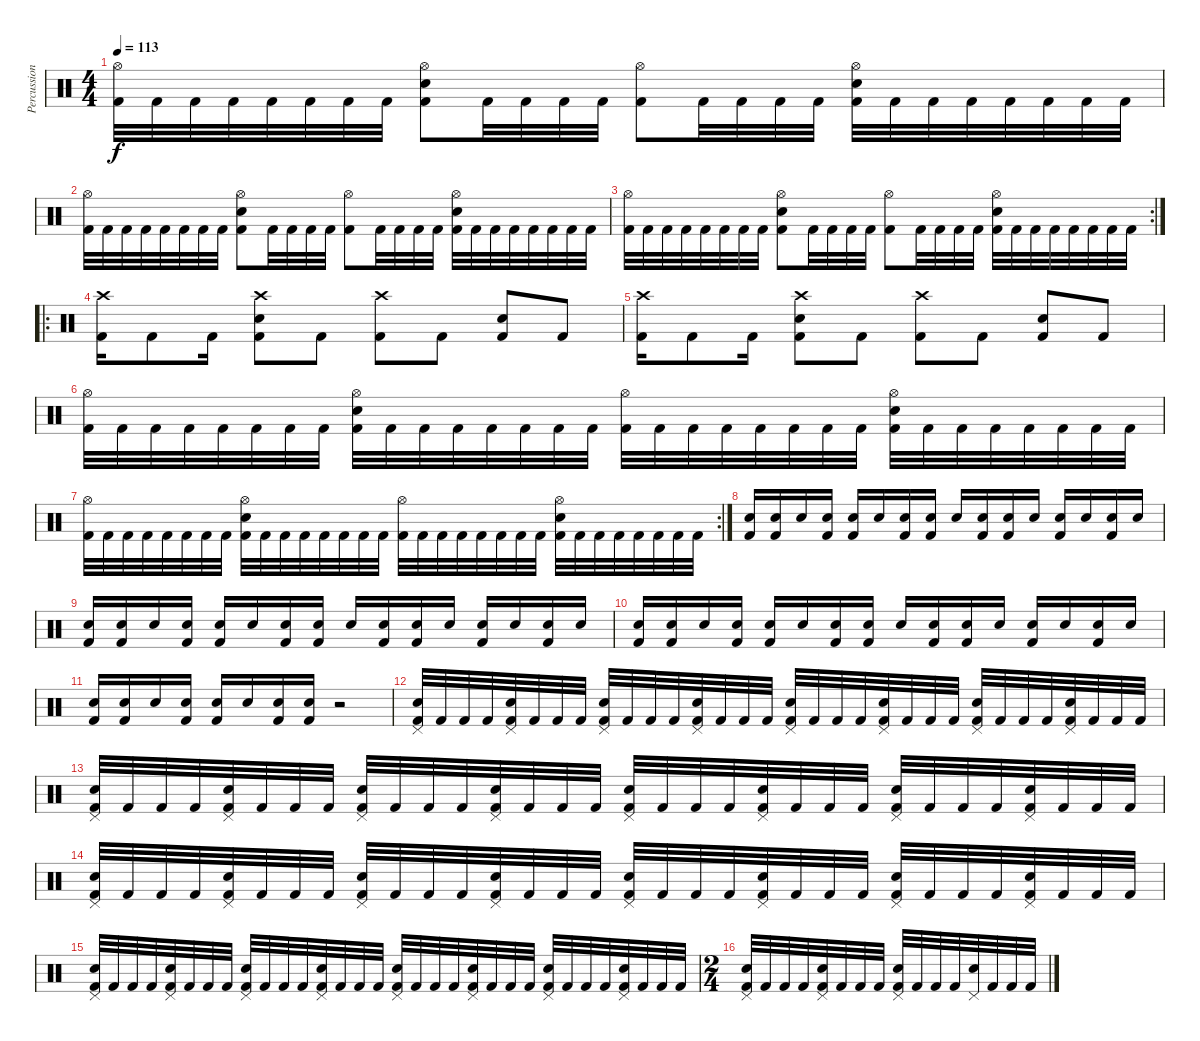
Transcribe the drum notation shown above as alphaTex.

\track ("Percussion" "Percussion") {instrument percussion}
\staff {score}
\articulation defaults
\ts (4 4)
\tempo 113
\clef neutral
\ks c
("Hi-Hat (open)" "Kick (hit) 2").32{dy f} "Kick (hit) 2".32 "Kick (hit) 2".32 "Kick (hit) 2".32 "Kick (hit) 2".32 "Kick (hit) 2".32 "Kick (hit) 2".32 "Kick (hit) 2".32 ("Hi-Hat (open)" "Electric Snare (hit)" "Kick (hit) 2").8 "Kick (hit) 2".32 "Kick (hit) 2".32 "Kick (hit) 2".32 "Kick (hit) 2".32 ("Hi-Hat (open)" "Kick (hit) 2").8 "Kick (hit) 2".32 "Kick (hit) 2".32 "Kick (hit) 2".32 "Kick (hit) 2".32 ("Hi-Hat (open)" "Electric Snare (hit)" "Kick (hit) 2").32 "Kick (hit) 2".32 "Kick (hit) 2".32 "Kick (hit) 2".32 "Kick (hit) 2".32 "Kick (hit) 2".32 "Kick (hit) 2".32 "Kick (hit) 2".32 |
("Hi-Hat (open)" "Kick (hit) 2").32 "Kick (hit) 2".32 "Kick (hit) 2".32 "Kick (hit) 2".32 "Kick (hit) 2".32 "Kick (hit) 2".32 "Kick (hit) 2".32 "Kick (hit) 2".32 ("Hi-Hat (open)" "Electric Snare (hit)" "Kick (hit) 2").8 "Kick (hit) 2".32 "Kick (hit) 2".32 "Kick (hit) 2".32 "Kick (hit) 2".32 ("Hi-Hat (open)" "Kick (hit) 2").8 "Kick (hit) 2".32 "Kick (hit) 2".32 "Kick (hit) 2".32 "Kick (hit) 2".32 ("Hi-Hat (open)" "Electric Snare (hit)" "Kick (hit) 2").32 "Kick (hit) 2".32 "Kick (hit) 2".32 "Kick (hit) 2".32 "Kick (hit) 2".32 "Kick (hit) 2".32 "Kick (hit) 2".32 "Kick (hit) 2".32 |
\rc 2
("Hi-Hat (open)" "Kick (hit) 2").32 "Kick (hit) 2".32 "Kick (hit) 2".32 "Kick (hit) 2".32 "Kick (hit) 2".32 "Kick (hit) 2".32 "Kick (hit) 2".32 "Kick (hit) 2".32 ("Hi-Hat (open)" "Electric Snare (hit)" "Kick (hit) 2").8 "Kick (hit) 2".32 "Kick (hit) 2".32 "Kick (hit) 2".32 "Kick (hit) 2".32 ("Hi-Hat (open)" "Kick (hit) 2").8 "Kick (hit) 2".32 "Kick (hit) 2".32 "Kick (hit) 2".32 "Kick (hit) 2".32 ("Hi-Hat (open)" "Electric Snare (hit)" "Kick (hit) 2").32 "Kick (hit) 2".32 "Kick (hit) 2".32 "Kick (hit) 2".32 "Kick (hit) 2".32 "Kick (hit) 2".32 "Kick (hit) 2".32 "Kick (hit) 2".32 |
\ro
("Crash high (hit)" "Kick (hit) 2").16 "Kick (hit) 2".8 "Kick (hit) 2".16 ("Crash high (hit)" "Electric Snare (hit)" "Kick (hit) 2").8 "Kick (hit) 2".8 ("Crash high (hit)" "Kick (hit) 2").8 "Kick (hit) 2".8 ("Electric Snare (hit)" "Kick (hit) 2").8 "Kick (hit) 2".8 |
("Crash high (hit)" "Kick (hit) 2").16 "Kick (hit) 2".8 "Kick (hit) 2".16 ("Crash high (hit)" "Electric Snare (hit)" "Kick (hit) 2").8 "Kick (hit) 2".8 ("Crash high (hit)" "Kick (hit) 2").8 "Kick (hit) 2".8 ("Electric Snare (hit)" "Kick (hit) 2").8 "Kick (hit) 2".8 |
("Hi-Hat (open)" "Kick (hit) 2").32 "Kick (hit) 2".32 "Kick (hit) 2".32 "Kick (hit) 2".32 "Kick (hit) 2".32 "Kick (hit) 2".32 "Kick (hit) 2".32 "Kick (hit) 2".32 ("Hi-Hat (open)" "Electric Snare (hit)" "Kick (hit) 2").32 "Kick (hit) 2".32 "Kick (hit) 2".32 "Kick (hit) 2".32 "Kick (hit) 2".32 "Kick (hit) 2".32 "Kick (hit) 2".32 "Kick (hit) 2".32 ("Hi-Hat (open)" "Kick (hit) 2").32 "Kick (hit) 2".32 "Kick (hit) 2".32 "Kick (hit) 2".32 "Kick (hit) 2".32 "Kick (hit) 2".32 "Kick (hit) 2".32 "Kick (hit) 2".32 ("Hi-Hat (open)" "Electric Snare (hit)" "Kick (hit) 2").32 "Kick (hit) 2".32 "Kick (hit) 2".32 "Kick (hit) 2".32 "Kick (hit) 2".32 "Kick (hit) 2".32 "Kick (hit) 2".32 "Kick (hit) 2".32 |
\rc 2
("Hi-Hat (open)" "Kick (hit) 2").32 "Kick (hit) 2".32 "Kick (hit) 2".32 "Kick (hit) 2".32 "Kick (hit) 2".32 "Kick (hit) 2".32 "Kick (hit) 2".32 "Kick (hit) 2".32 ("Hi-Hat (open)" "Electric Snare (hit)" "Kick (hit) 2").32 "Kick (hit) 2".32 "Kick (hit) 2".32 "Kick (hit) 2".32 "Kick (hit) 2".32 "Kick (hit) 2".32 "Kick (hit) 2".32 "Kick (hit) 2".32 ("Hi-Hat (open)" "Kick (hit) 2").32 "Kick (hit) 2".32 "Kick (hit) 2".32 "Kick (hit) 2".32 "Kick (hit) 2".32 "Kick (hit) 2".32 "Kick (hit) 2".32 "Kick (hit) 2".32 ("Hi-Hat (open)" "Electric Snare (hit)" "Kick (hit) 2").32 "Kick (hit) 2".32 "Kick (hit) 2".32 "Kick (hit) 2".32 "Kick (hit) 2".32 "Kick (hit) 2".32 "Kick (hit) 2".32 "Kick (hit) 2".32 |
("Electric Snare (hit)" "Kick (hit) 2").16 ("Electric Snare (hit)" "Kick (hit) 2").16 "Electric Snare (hit)".16 ("Electric Snare (hit)" "Kick (hit) 2").16 ("Electric Snare (hit)" "Kick (hit) 2").16 "Electric Snare (hit)".16 ("Electric Snare (hit)" "Kick (hit) 2").16 ("Electric Snare (hit)" "Kick (hit) 2").16 "Electric Snare (hit)".16 ("Electric Snare (hit)" "Kick (hit) 2").16 ("Electric Snare (hit)" "Kick (hit) 2").16 "Electric Snare (hit)".16 ("Electric Snare (hit)" "Kick (hit) 2").16 "Electric Snare (hit)".16 ("Electric Snare (hit)" "Kick (hit) 2").16 "Electric Snare (hit)".16 |
("Electric Snare (hit)" "Kick (hit) 2").16 ("Electric Snare (hit)" "Kick (hit) 2").16 "Electric Snare (hit)".16 ("Electric Snare (hit)" "Kick (hit) 2").16 ("Electric Snare (hit)" "Kick (hit) 2").16 "Electric Snare (hit)".16 ("Electric Snare (hit)" "Kick (hit) 2").16 ("Electric Snare (hit)" "Kick (hit) 2").16 "Electric Snare (hit)".16 ("Electric Snare (hit)" "Kick (hit) 2").16 ("Electric Snare (hit)" "Kick (hit) 2").16 "Electric Snare (hit)".16 ("Electric Snare (hit)" "Kick (hit) 2").16 "Electric Snare (hit)".16 ("Electric Snare (hit)" "Kick (hit) 2").16 "Electric Snare (hit)".16 |
("Electric Snare (hit)" "Kick (hit) 2").16 ("Electric Snare (hit)" "Kick (hit) 2").16 "Electric Snare (hit)".16 ("Electric Snare (hit)" "Kick (hit) 2").16 ("Electric Snare (hit)" "Kick (hit) 2").16 "Electric Snare (hit)".16 ("Electric Snare (hit)" "Kick (hit) 2").16 ("Electric Snare (hit)" "Kick (hit) 2").16 "Electric Snare (hit)".16 ("Electric Snare (hit)" "Kick (hit) 2").16 ("Electric Snare (hit)" "Kick (hit) 2").16 "Electric Snare (hit)".16 ("Electric Snare (hit)" "Kick (hit) 2").16 "Electric Snare (hit)".16 ("Electric Snare (hit)" "Kick (hit) 2").16 "Electric Snare (hit)".16 |
("Electric Snare (hit)" "Kick (hit) 2").16 ("Electric Snare (hit)" "Kick (hit) 2").16 "Electric Snare (hit)".16 ("Electric Snare (hit)" "Kick (hit) 2").16 ("Electric Snare (hit)" "Kick (hit) 2").16 "Electric Snare (hit)".16 ("Electric Snare (hit)" "Kick (hit) 2").16 ("Electric Snare (hit)" "Kick (hit) 2").16 r.2 |
("Pedal Hi-Hat (hit)" "Electric Snare (hit)" "Kick (hit) 2").32 "Kick (hit) 2".32 "Kick (hit) 2".32 "Kick (hit) 2".32 ("Pedal Hi-Hat (hit)" "Electric Snare (hit)" "Kick (hit) 2").32 "Kick (hit) 2".32 "Kick (hit) 2".32 "Kick (hit) 2".32 ("Pedal Hi-Hat (hit)" "Electric Snare (hit)" "Kick (hit) 2").32 "Kick (hit) 2".32 "Kick (hit) 2".32 "Kick (hit) 2".32 ("Pedal Hi-Hat (hit)" "Electric Snare (hit)" "Kick (hit) 2").32 "Kick (hit) 2".32 "Kick (hit) 2".32 "Kick (hit) 2".32 ("Pedal Hi-Hat (hit)" "Electric Snare (hit)" "Kick (hit) 2").32 "Kick (hit) 2".32 "Kick (hit) 2".32 "Kick (hit) 2".32 ("Pedal Hi-Hat (hit)" "Electric Snare (hit)" "Kick (hit) 2").32 "Kick (hit) 2".32 "Kick (hit) 2".32 "Kick (hit) 2".32 ("Pedal Hi-Hat (hit)" "Electric Snare (hit)" "Kick (hit) 2").32 "Kick (hit) 2".32 "Kick (hit) 2".32 "Kick (hit) 2".32 ("Pedal Hi-Hat (hit)" "Electric Snare (hit)" "Kick (hit) 2").32 "Kick (hit) 2".32 "Kick (hit) 2".32 "Kick (hit) 2".32 |
("Pedal Hi-Hat (hit)" "Electric Snare (hit)" "Kick (hit) 2").32 "Kick (hit) 2".32 "Kick (hit) 2".32 "Kick (hit) 2".32 ("Pedal Hi-Hat (hit)" "Electric Snare (hit)" "Kick (hit) 2").32 "Kick (hit) 2".32 "Kick (hit) 2".32 "Kick (hit) 2".32 ("Pedal Hi-Hat (hit)" "Electric Snare (hit)" "Kick (hit) 2").32 "Kick (hit) 2".32 "Kick (hit) 2".32 "Kick (hit) 2".32 ("Pedal Hi-Hat (hit)" "Electric Snare (hit)" "Kick (hit) 2").32 "Kick (hit) 2".32 "Kick (hit) 2".32 "Kick (hit) 2".32 ("Pedal Hi-Hat (hit)" "Electric Snare (hit)" "Kick (hit) 2").32 "Kick (hit) 2".32 "Kick (hit) 2".32 "Kick (hit) 2".32 ("Pedal Hi-Hat (hit)" "Electric Snare (hit)" "Kick (hit) 2").32 "Kick (hit) 2".32 "Kick (hit) 2".32 "Kick (hit) 2".32 ("Pedal Hi-Hat (hit)" "Electric Snare (hit)" "Kick (hit) 2").32 "Kick (hit) 2".32 "Kick (hit) 2".32 "Kick (hit) 2".32 ("Pedal Hi-Hat (hit)" "Electric Snare (hit)" "Kick (hit) 2").32 "Kick (hit) 2".32 "Kick (hit) 2".32 "Kick (hit) 2".32 |
("Pedal Hi-Hat (hit)" "Electric Snare (hit)" "Kick (hit) 2").32 "Kick (hit) 2".32 "Kick (hit) 2".32 "Kick (hit) 2".32 ("Pedal Hi-Hat (hit)" "Electric Snare (hit)" "Kick (hit) 2").32 "Kick (hit) 2".32 "Kick (hit) 2".32 "Kick (hit) 2".32 ("Pedal Hi-Hat (hit)" "Electric Snare (hit)" "Kick (hit) 2").32 "Kick (hit) 2".32 "Kick (hit) 2".32 "Kick (hit) 2".32 ("Pedal Hi-Hat (hit)" "Electric Snare (hit)" "Kick (hit) 2").32 "Kick (hit) 2".32 "Kick (hit) 2".32 "Kick (hit) 2".32 ("Pedal Hi-Hat (hit)" "Electric Snare (hit)" "Kick (hit) 2").32 "Kick (hit) 2".32 "Kick (hit) 2".32 "Kick (hit) 2".32 ("Pedal Hi-Hat (hit)" "Electric Snare (hit)" "Kick (hit) 2").32 "Kick (hit) 2".32 "Kick (hit) 2".32 "Kick (hit) 2".32 ("Pedal Hi-Hat (hit)" "Electric Snare (hit)" "Kick (hit) 2").32 "Kick (hit) 2".32 "Kick (hit) 2".32 "Kick (hit) 2".32 ("Pedal Hi-Hat (hit)" "Electric Snare (hit)" "Kick (hit) 2").32 "Kick (hit) 2".32 "Kick (hit) 2".32 "Kick (hit) 2".32 |
("Pedal Hi-Hat (hit)" "Electric Snare (hit)" "Kick (hit) 2").32 "Kick (hit) 2".32 "Kick (hit) 2".32 "Kick (hit) 2".32 ("Pedal Hi-Hat (hit)" "Electric Snare (hit)" "Kick (hit) 2").32 "Kick (hit) 2".32 "Kick (hit) 2".32 "Kick (hit) 2".32 ("Pedal Hi-Hat (hit)" "Electric Snare (hit)" "Kick (hit) 2").32 "Kick (hit) 2".32 "Kick (hit) 2".32 "Kick (hit) 2".32 ("Pedal Hi-Hat (hit)" "Electric Snare (hit)" "Kick (hit) 2").32 "Kick (hit) 2".32 "Kick (hit) 2".32 "Kick (hit) 2".32 ("Pedal Hi-Hat (hit)" "Electric Snare (hit)" "Kick (hit) 2").32 "Kick (hit) 2".32 "Kick (hit) 2".32 "Kick (hit) 2".32 ("Pedal Hi-Hat (hit)" "Electric Snare (hit)" "Kick (hit) 2").32 "Kick (hit) 2".32 "Kick (hit) 2".32 "Kick (hit) 2".32 ("Pedal Hi-Hat (hit)" "Electric Snare (hit)" "Kick (hit) 2").32 "Kick (hit) 2".32 "Kick (hit) 2".32 "Kick (hit) 2".32 ("Pedal Hi-Hat (hit)" "Electric Snare (hit)" "Kick (hit) 2").32 "Kick (hit) 2".32 "Kick (hit) 2".32 "Kick (hit) 2".32 |
\ts (2 4)
("Pedal Hi-Hat (hit)" "Electric Snare (hit)" "Kick (hit) 2").32 "Kick (hit) 2".32 "Kick (hit) 2".32 "Kick (hit) 2".32 ("Pedal Hi-Hat (hit)" "Electric Snare (hit)" "Kick (hit) 2").32 "Kick (hit) 2".32 "Kick (hit) 2".32 "Kick (hit) 2".32 ("Pedal Hi-Hat (hit)" "Electric Snare (hit)" "Kick (hit) 2").32 "Kick (hit) 2".32 "Kick (hit) 2".32 "Kick (hit) 2".32 ("Pedal Hi-Hat (hit)" "Electric Snare (hit)").32 "Kick (hit) 2".32 "Kick (hit) 2".32 "Kick (hit) 2".32
